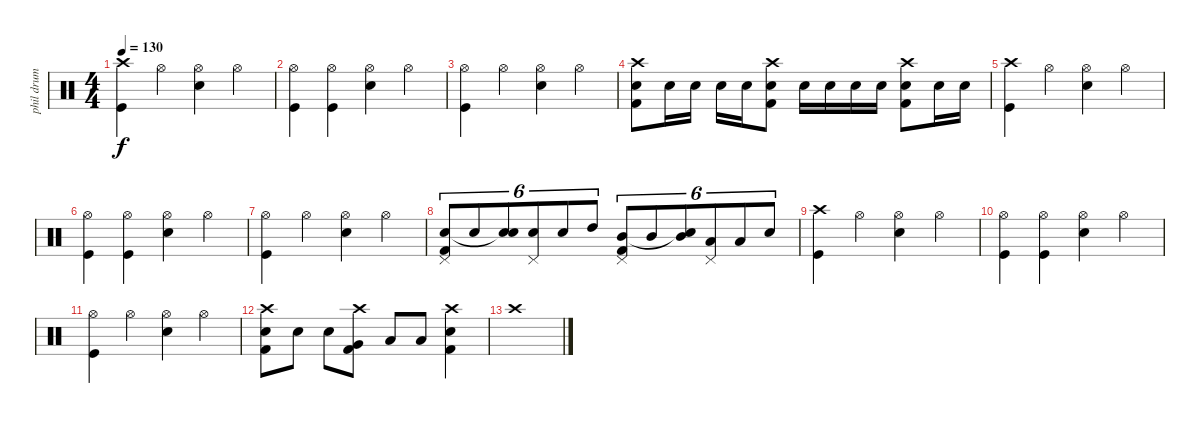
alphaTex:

\track ("phil drum" "phil drum") {instrument percussion}
\staff {score}
\articulation defaults
\ts (4 4)
\tempo 130
\clef neutral
\ks c
("Crash high (hit)" "Kick (hit)").4{dy f} "Hi-Hat (open)".4 ("Hi-Hat (open)" "Snare (hit) 2").4 "Hi-Hat (open)".4 |
("Hi-Hat (open)" "Kick (hit)").4 ("Hi-Hat (open)" "Kick (hit)").4 ("Hi-Hat (open)" "Snare (hit) 2").4 "Hi-Hat (open)".4 |
("Hi-Hat (open)" "Kick (hit)").4 "Hi-Hat (open)".4 ("Hi-Hat (open)" "Snare (hit) 2").4 "Hi-Hat (open)".4 |
("Electric Snare (hit)" "Crash high (hit)" "Kick (hit) 2").8 "Snare (hit) 2".16 "Snare (hit) 2".16 "Snare (hit) 2".16 "Snare (hit) 2".16 ("Electric Snare (hit)" "Crash high (hit)" "Kick (hit) 2").8 "Snare (hit) 2".16 "Snare (hit) 2".16 "Snare (hit) 2".16 "Snare (hit) 2".16 ("Electric Snare (hit)" "Crash high (hit)" "Kick (hit) 2").8 "Snare (hit) 2".16 "Snare (hit) 2".16 |
("Crash high (hit)" "Kick (hit)").4 "Hi-Hat (open)".4 ("Hi-Hat (open)" "Snare (hit) 2").4 "Hi-Hat (open)".4 |
("Hi-Hat (open)" "Kick (hit)").4 ("Hi-Hat (open)" "Kick (hit)").4 ("Hi-Hat (open)" "Snare (hit) 2").4 "Hi-Hat (open)".4 |
("Hi-Hat (open)" "Kick (hit)").4 "Hi-Hat (open)".4 ("Hi-Hat (open)" "Snare (hit) 2").4 "Hi-Hat (open)".4 |
("Pedal Hi-Hat (hit)" "Electric Snare (hit)" "Kick (hit) 2").8{tu (6 4)} "Electric Snare (hit)".8{tu (6 4)} ("Electric Snare (hit)" "Snare (hit)"{t}).8{tu (6 4)} ("Pedal Hi-Hat (hit)" "Electric Snare (hit)").8{tu (6 4)} "Electric Snare (hit)".8{tu (6 4)} "High Tom (hit)".8{tu (6 4)} ("Pedal Hi-Hat (hit)" "Mid Tom (hit)" "Kick (hit) 2").8{tu (6 4)} "Mid Tom (hit)".8{tu (6 4)} ("Mid Tom (hit)" "Snare (hit)"{t}).8{tu (6 4)} ("Pedal Hi-Hat (hit)" "Low Tom (hit)").8{tu (6 4)} "Low Tom (hit)".8{tu (6 4)} "Snare (hit) 2".8{tu (6 4)} |
("Crash high (hit)" "Kick (hit)").4 "Hi-Hat (open)".4 ("Hi-Hat (open)" "Snare (hit) 2").4 "Hi-Hat (open)".4 |
("Hi-Hat (open)" "Kick (hit)").4 ("Hi-Hat (open)" "Kick (hit)").4 ("Hi-Hat (open)" "Snare (hit) 2").4 "Hi-Hat (open)".4 |
("Hi-Hat (open)" "Kick (hit)").4 "Hi-Hat (open)".4 ("Hi-Hat (open)" "Snare (hit) 2").4 "Hi-Hat (open)".4 |
("Electric Snare (hit)" "Crash high (hit)" "Kick (hit) 2").8 "Snare (hit) 2".8 "Snare (hit) 2".8 ("Very Low Tom (hit)" "Crash high (hit)" "Kick (hit) 2").8 "Low Tom (hit)".8 "Low Tom (hit)".8 ("Electric Snare (hit)" "Crash high (hit)" "Kick (hit) 2").4 |
"Crash high (hit)".1
